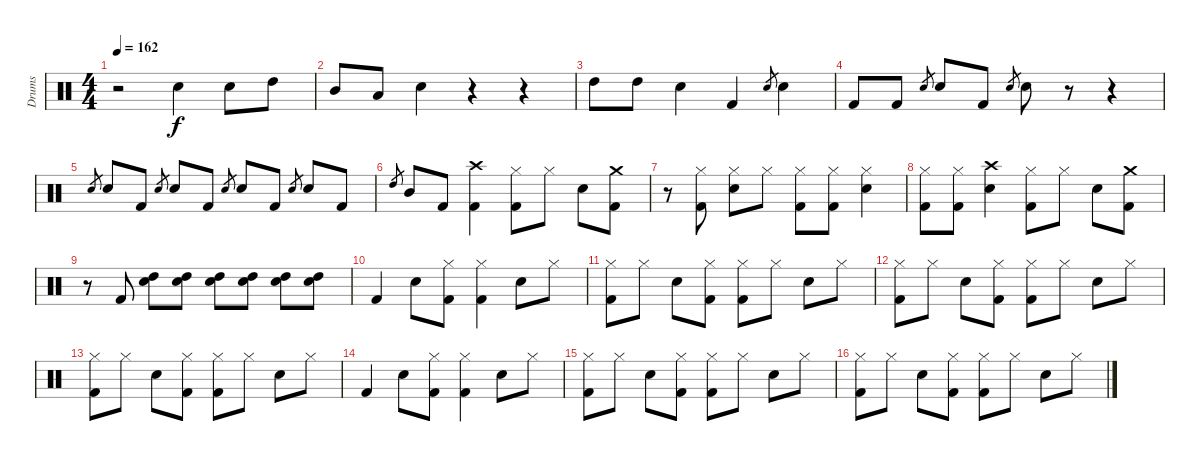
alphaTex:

\track ("Drums" "Drums") {instrument percussion}
\staff {score}
\articulation defaults
\ts (4 4)
\tempo 162
\clef neutral
\ks c
r.2{dy f} "Snare (hit) 2".4 "Snare (hit) 2".8 "High Tom (hit)".8 |
"Mid Tom (hit)".8 "Low Tom (hit)".8 "Snare (hit) 2".4 r.4 r.4 |
"High Tom (hit)".8 "High Tom (hit)".8 "Snare (hit) 2".4 "Kick (hit) 2".4 "Snare (hit) 2".8{gr} "Snare (hit) 2".4 |
"Kick (hit) 2".8 "Kick (hit) 2".8 "Snare (hit) 2".8{gr} "Snare (hit) 2".8 "Kick (hit) 2".8 "Snare (hit) 2".8{gr} "Snare (hit) 2".8 r.8 r.4 |
"Snare (hit) 2".8{gr} "Snare (hit) 2".8 "Kick (hit) 2".8 "Snare (hit) 2".8{gr} "Snare (hit) 2".8 "Kick (hit) 2".8 "Snare (hit) 2".8{gr} "Snare (hit) 2".8 "Kick (hit) 2".8 "Snare (hit) 2".8{gr} "Snare (hit) 2".8 "Kick (hit) 2".8 |
"High Tom (hit)".8{gr} "Mid Tom (hit)".8 "Kick (hit) 2".8 ("Crash high (hit)" "Kick (hit) 2").4 ("Hi-Hat (closed)" "Kick (hit) 2").8 "Hi-Hat (closed)".8 "Snare (hit) 2".8 ("Crash medium (hit)" "Kick (hit) 2").8 |
r.8 ("Hi-Hat (closed)" "Kick (hit) 2").8 ("Hi-Hat (closed)" "Snare (hit) 2").8 "Hi-Hat (closed)".8 ("Hi-Hat (closed)" "Kick (hit) 2").8 ("Hi-Hat (closed)" "Kick (hit) 2").8 ("Hi-Hat (closed)" "Snare (hit) 2").4 |
("Hi-Hat (closed)" "Kick (hit) 2").8 ("Hi-Hat (closed)" "Kick (hit) 2").8 ("Crash high (hit)" "Snare (hit) 2").4 ("Hi-Hat (closed)" "Kick (hit) 2").8 "Hi-Hat (closed)".8 "Snare (hit) 2".8 ("Crash medium (hit)" "Kick (hit) 2").8 |
r.8 "Kick (hit) 2".8 ("High Tom (hit)" "Snare (hit) 2").8 ("High Tom (hit)" "Snare (hit) 2").8 ("High Tom (hit)" "Snare (hit) 2").8 ("High Tom (hit)" "Snare (hit) 2").8 ("High Tom (hit)" "Snare (hit) 2").8 ("High Tom (hit)" "Snare (hit) 2").8 |
"Kick (hit) 2".4 "Snare (hit) 2".8 ("Hi-Hat (closed)" "Kick (hit) 2").8 ("Hi-Hat (closed)" "Kick (hit) 2").4 "Snare (hit) 2".8 "Hi-Hat (closed)".8 |
("Hi-Hat (closed)" "Kick (hit) 2").8 "Hi-Hat (closed)".8 "Snare (hit) 2".8 ("Hi-Hat (closed)" "Kick (hit) 2").8 ("Hi-Hat (closed)" "Kick (hit) 2").8 "Hi-Hat (closed)".8 "Snare (hit) 2".8 "Hi-Hat (closed)".8 |
("Hi-Hat (closed)" "Kick (hit) 2").8 "Hi-Hat (closed)".8 "Snare (hit) 2".8 ("Hi-Hat (closed)" "Kick (hit) 2").8 ("Hi-Hat (closed)" "Kick (hit) 2").8 "Hi-Hat (closed)".8 "Snare (hit) 2".8 "Hi-Hat (closed)".8 |
("Hi-Hat (closed)" "Kick (hit) 2").8 "Hi-Hat (closed)".8 "Snare (hit) 2".8 ("Hi-Hat (closed)" "Kick (hit) 2").8 ("Hi-Hat (closed)" "Kick (hit) 2").8 "Hi-Hat (closed)".8 "Snare (hit) 2".8 "Hi-Hat (closed)".8 |
"Kick (hit) 2".4 "Snare (hit) 2".8 ("Hi-Hat (closed)" "Kick (hit) 2").8 ("Hi-Hat (closed)" "Kick (hit) 2").4 "Snare (hit) 2".8 "Hi-Hat (closed)".8 |
("Hi-Hat (closed)" "Kick (hit) 2").8 "Hi-Hat (closed)".8 "Snare (hit) 2".8 ("Hi-Hat (closed)" "Kick (hit) 2").8 ("Hi-Hat (closed)" "Kick (hit) 2").8 "Hi-Hat (closed)".8 "Snare (hit) 2".8 "Hi-Hat (closed)".8 |
("Hi-Hat (closed)" "Kick (hit) 2").8 "Hi-Hat (closed)".8 "Snare (hit) 2".8 ("Hi-Hat (closed)" "Kick (hit) 2").8 ("Hi-Hat (closed)" "Kick (hit) 2").8 "Hi-Hat (closed)".8 "Snare (hit) 2".8 "Hi-Hat (closed)".8
